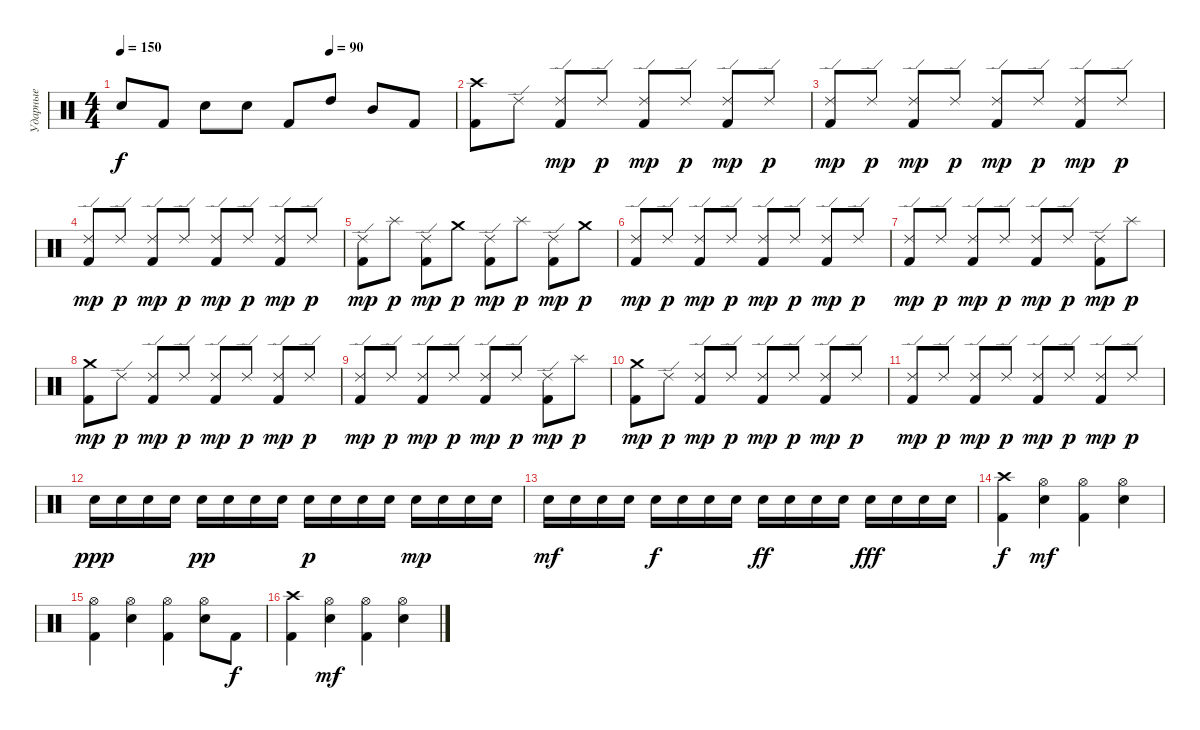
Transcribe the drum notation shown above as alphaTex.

\track ("Ударные" "Ударные") {instrument percussion}
\staff {score}
\articulation defaults
\ts (4 4)
\tempo 150
\tempo (90 0.625)
\clef neutral
\ks c "Electric Snare (hit)".8{dy f} "Kick (hit) 2".8 "Electric Snare (hit)".8 "Electric Snare (hit)".8 "Kick (hit) 2".8 "High Tom (hit)".8 "Mid Tom (hit)".8 "Kick (hit) 2".8
|
("Crash high (hit)" "Kick (hit) 2").8 "Ride (edge) 2".8 ("Ride (edge) 2" "Kick (hit) 2").8{dy mp} "Ride (edge) 2".8{dy p} ("Ride (edge) 2" "Kick (hit) 2").8{dy mp} "Ride (edge) 2".8{dy p} ("Ride (edge) 2" "Kick (hit) 2").8{dy mp} "Ride (edge) 2".8{dy p} |
("Ride (edge) 2" "Kick (hit) 2").8{dy mp} "Ride (edge) 2".8{dy p} ("Ride (edge) 2" "Kick (hit) 2").8{dy mp} "Ride (edge) 2".8{dy p} ("Ride (edge) 2" "Kick (hit) 2").8{dy mp} "Ride (edge) 2".8{dy p} ("Ride (edge) 2" "Kick (hit) 2").8{dy mp} "Ride (edge) 2".8{dy p} |
("Ride (edge) 2" "Kick (hit) 2").8{dy mp} "Ride (edge) 2".8{dy p} ("Ride (edge) 2" "Kick (hit) 2").8{dy mp} "Ride (edge) 2".8{dy p} ("Ride (edge) 2" "Kick (hit) 2").8{dy mp} "Ride (edge) 2".8{dy p} ("Ride (edge) 2" "Kick (hit) 2").8{dy mp} "Ride (edge) 2".8{dy p} |
("Ride (edge) 2" "Kick (hit) 2").8{dy mp} "Splash (hit)".8{dy p} ("Ride (edge) 2" "Kick (hit) 2").8{dy mp} "Crash medium (hit)".8{dy p} ("Ride (edge) 2" "Kick (hit) 2").8{dy mp} "Splash (hit)".8{dy p} ("Ride (edge) 2" "Kick (hit) 2").8{dy mp} "Crash medium (hit)".8{dy p} |
("Ride (edge) 2" "Kick (hit) 2").8{dy mp} "Ride (edge) 2".8{dy p} ("Ride (edge) 2" "Kick (hit) 2").8{dy mp} "Ride (edge) 2".8{dy p} ("Ride (edge) 2" "Kick (hit) 2").8{dy mp} "Ride (edge) 2".8{dy p} ("Ride (edge) 2" "Kick (hit) 2").8{dy mp} "Ride (edge) 2".8{dy p} |
("Ride (edge) 2" "Kick (hit) 2").8{dy mp} "Ride (edge) 2".8{dy p} ("Ride (edge) 2" "Kick (hit) 2").8{dy mp} "Ride (edge) 2".8{dy p} ("Ride (edge) 2" "Kick (hit) 2").8{dy mp} "Ride (edge) 2".8{dy p} ("Ride (edge) 2" "Kick (hit) 2").8{dy mp} "Splash (hit)".8{dy p} |
("Crash medium (hit)" "Kick (hit) 2").8{dy mp} "Ride (edge) 2".8{dy p} ("Ride (edge) 2" "Kick (hit) 2").8{dy mp} "Ride (edge) 2".8{dy p} ("Ride (edge) 2" "Kick (hit) 2").8{dy mp} "Ride (edge) 2".8{dy p} ("Ride (edge) 2" "Kick (hit) 2").8{dy mp} "Ride (edge) 2".8{dy p} |
("Ride (edge) 2" "Kick (hit) 2").8{dy mp} "Ride (edge) 2".8{dy p} ("Ride (edge) 2" "Kick (hit) 2").8{dy mp} "Ride (edge) 2".8{dy p} ("Ride (edge) 2" "Kick (hit) 2").8{dy mp} "Ride (edge) 2".8{dy p} ("Ride (edge) 2" "Kick (hit) 2").8{dy mp} "Splash (hit)".8{dy p} |
("Crash medium (hit)" "Kick (hit) 2").8{dy mp} "Ride (edge) 2".8{dy p} ("Ride (edge) 2" "Kick (hit) 2").8{dy mp} "Ride (edge) 2".8{dy p} ("Ride (edge) 2" "Kick (hit) 2").8{dy mp} "Ride (edge) 2".8{dy p} ("Ride (edge) 2" "Kick (hit) 2").8{dy mp} "Ride (edge) 2".8{dy p} |
("Ride (edge) 2" "Kick (hit) 2").8{dy mp} "Ride (edge) 2".8{dy p} ("Ride (edge) 2" "Kick (hit) 2").8{dy mp} "Ride (edge) 2".8{dy p} ("Ride (edge) 2" "Kick (hit) 2").8{dy mp} "Ride (edge) 2".8{dy p} ("Ride (edge) 2" "Kick (hit) 2").8{dy mp} "Ride (edge) 2".8{dy p} |
"Electric Snare (hit)".16{dy ppp} "Electric Snare (hit)".16 "Electric Snare (hit)".16 "Electric Snare (hit)".16 "Electric Snare (hit)".16{dy pp} "Electric Snare (hit)".16 "Electric Snare (hit)".16 "Electric Snare (hit)".16 "Electric Snare (hit)".16{dy p} "Electric Snare (hit)".16 "Electric Snare (hit)".16 "Electric Snare (hit)".16 "Electric Snare (hit)".16{dy mp} "Electric Snare (hit)".16 "Electric Snare (hit)".16 "Electric Snare (hit)".16 |
"Electric Snare (hit)".16{dy mf} "Electric Snare (hit)".16 "Electric Snare (hit)".16 "Electric Snare (hit)".16 "Electric Snare (hit)".16{dy f} "Electric Snare (hit)".16 "Electric Snare (hit)".16 "Electric Snare (hit)".16 "Electric Snare (hit)".16{dy ff} "Electric Snare (hit)".16 "Electric Snare (hit)".16 "Electric Snare (hit)".16 "Electric Snare (hit)".16{dy fff} "Electric Snare (hit)".16 "Electric Snare (hit)".16 "Electric Snare (hit)".16 |
("Crash high (hit)" "Kick (hit) 2").4{dy f} ("Hi-Hat (open)" "Electric Snare (hit)").4{dy mf} ("Hi-Hat (open)" "Kick (hit) 2").4 ("Hi-Hat (open)" "Electric Snare (hit)").4 |
("Hi-Hat (open)" "Kick (hit) 2").4 ("Hi-Hat (open)" "Electric Snare (hit)").4 ("Hi-Hat (open)" "Kick (hit) 2").4 ("Hi-Hat (open)" "Electric Snare (hit)").8 "Kick (hit) 2".8{dy f} |
("Crash high (hit)" "Kick (hit) 2").4 ("Hi-Hat (open)" "Electric Snare (hit)").4{dy mf} ("Hi-Hat (open)" "Kick (hit) 2").4 ("Hi-Hat (open)" "Electric Snare (hit)").4
